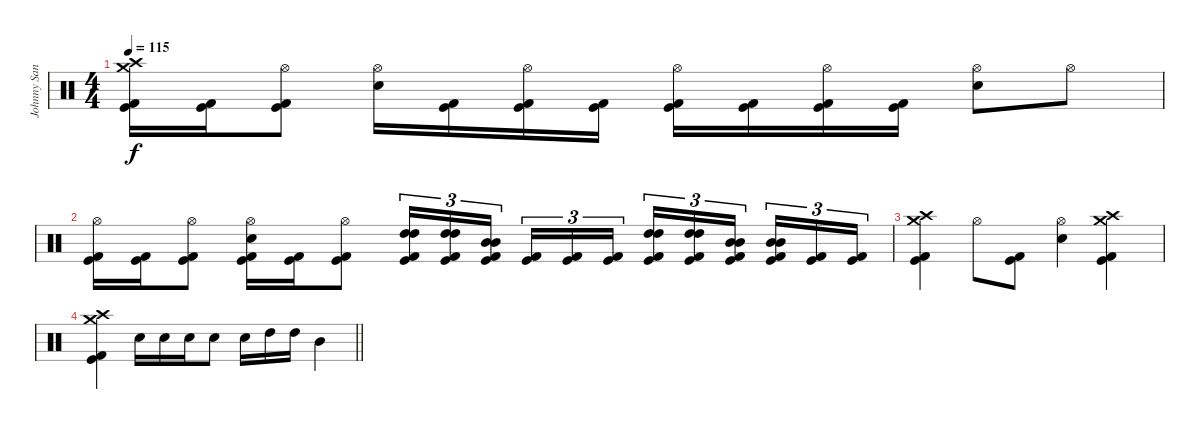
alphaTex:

\track ("Johnny Sandin" "Johnny San") {instrument percussion}
\staff {score}
\articulation defaults
\ts (4 4)
\tempo 115
\clef neutral
\ks c
("Crash medium (hit)" "Crash high (hit)" "Kick (hit) 2" "Kick (hit)").16{dy f} ("Kick (hit) 2" "Kick (hit)").16 ("Hi-Hat (open)" "Kick (hit) 2" "Kick (hit)").8 ("Hi-Hat (open)" "Snare (hit) 2").16 ("Kick (hit) 2" "Kick (hit)").16 ("Hi-Hat (open)" "Kick (hit) 2" "Kick (hit)").16 ("Kick (hit) 2" "Kick (hit)").16 ("Hi-Hat (open)" "Kick (hit) 2" "Kick (hit)").16 ("Kick (hit) 2" "Kick (hit)").16 ("Hi-Hat (open)" "Kick (hit) 2" "Kick (hit)").16 ("Kick (hit) 2" "Kick (hit)").16 ("Hi-Hat (open)" "Snare (hit) 2").8 "Hi-Hat (open)".8 |
("Hi-Hat (open)" "Kick (hit) 2" "Kick (hit)").16 ("Kick (hit) 2" "Kick (hit)").16 ("Hi-Hat (open)" "Kick (hit) 2" "Kick (hit)").8 ("Hi-Hat (open)" "Snare (hit) 2" "Kick (hit) 2" "Kick (hit)").16 ("Kick (hit) 2" "Kick (hit)").16 ("Hi-Hat (open)" "Kick (hit) 2" "Kick (hit)").8 ("High Tom (hit)" "High Tom (hit)" "Kick (hit) 2" "Kick (hit)").16{tu (3 2)} ("High Tom (hit)" "High Tom (hit)" "Kick (hit) 2" "Kick (hit)").16{tu (3 2)} ("Mid Tom (hit)" "Mid Tom (hit)" "Kick (hit) 2" "Kick (hit)").16{tu (3 2)} ("Kick (hit) 2" "Kick (hit)").16{tu (3 2)} ("Kick (hit) 2" "Kick (hit)").16{tu (3 2)} ("Kick (hit) 2" "Kick (hit)").16{tu (3 2)} ("High Tom (hit)" "High Tom (hit)" "Kick (hit) 2" "Kick (hit)").16{tu (3 2)} ("High Tom (hit)" "High Tom (hit)" "Kick (hit) 2" "Kick (hit)").16{tu (3 2)} ("Mid Tom (hit)" "Mid Tom (hit)" "Kick (hit) 2" "Kick (hit)").16{tu (3 2)} ("Mid Tom (hit)" "Mid Tom (hit)" "Kick (hit) 2" "Kick (hit)").16{tu (3 2)} ("Kick (hit) 2" "Kick (hit)").16{tu (3 2)} ("Kick (hit) 2" "Kick (hit)").16{tu (3 2)} |
("Crash medium (hit)" "Crash high (hit)" "Kick (hit) 2" "Kick (hit)").4 "Hi-Hat (open)".8 ("Kick (hit) 2" "Kick (hit)").8 ("Hi-Hat (open)" "Snare (hit) 2").4 ("Crash medium (hit)" "Crash high (hit)" "Kick (hit) 2" "Kick (hit)").4 |
\barLineRight lightlight
("Crash medium (hit)" "Crash high (hit)" "Kick (hit) 2" "Kick (hit)").4 "Snare (hit) 2".16 "Snare (hit) 2".16 "Snare (hit) 2".16 "Snare (hit) 2".8 "Snare (hit) 2".16 "High Tom (hit)".16 "High Tom (hit)".16 "Mid Tom (hit)".4
